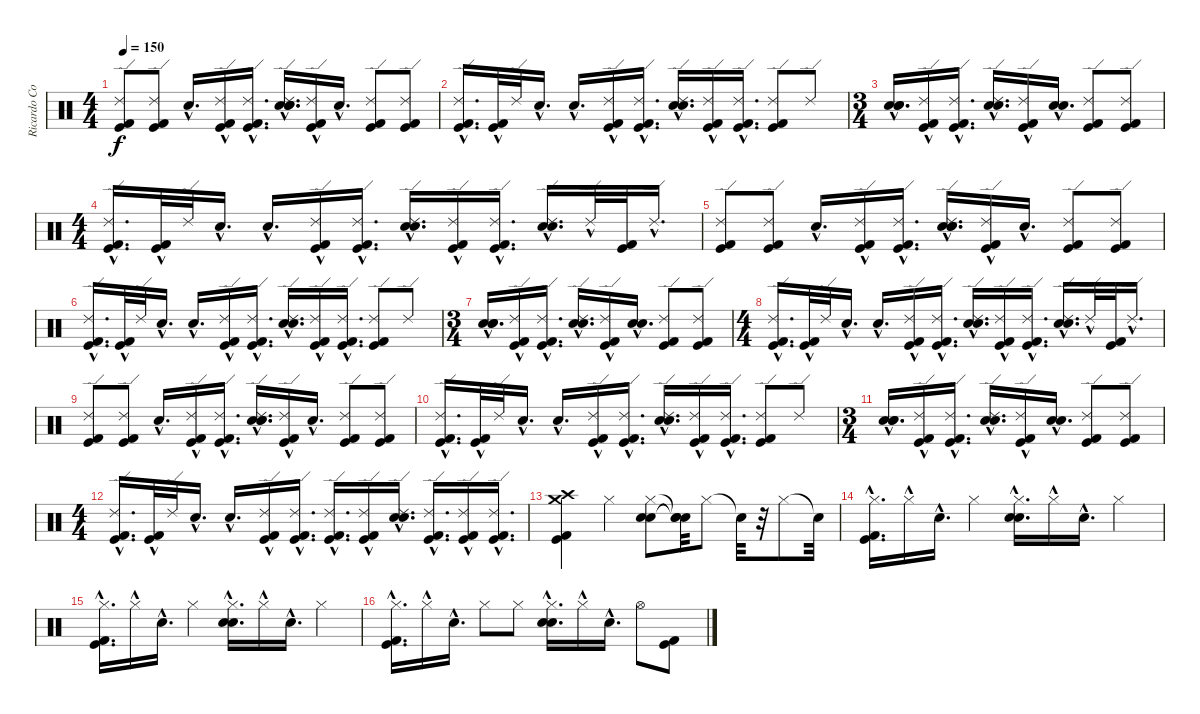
\track ("Ricardo Confessori" "Ricardo Co") {instrument percussion}
\staff {score}
\articulation defaults
\ts (4 4)
\tempo 150
\clef neutral
\ks c
("Ride (edge) 2" "Kick (hit) 2" "Kick (hit)").8{dy f} ("Ride (edge) 2" "Kick (hit) 2" "Kick (hit)").8 "Snare (hit)"{hac}.16{d} ("Ride (edge) 2"{hac} "Kick (hit) 2"{hac} "Kick (hit)"{hac}).16 ("Ride (edge) 2"{hac} "Kick (hit) 2"{hac} "Kick (hit)"{hac}).16{d} ("Electric Snare (hit)"{hac} "Snare (hit) 2"{hac} "Ride (edge) 2"{hac} "Snare (hit)"{hac}).16{d} ("Ride (edge) 2"{hac} "Kick (hit) 2"{hac} "Kick (hit)"{hac}).16 "Snare (hit)"{hac}.16{d} ("Ride (edge) 2" "Kick (hit) 2" "Kick (hit)").8 ("Ride (edge) 2" "Kick (hit) 2" "Kick (hit)").8 |
("Ride (edge) 2" "Kick (hit) 2"{hac} "Kick (hit)"{hac}).16{d} ("Kick (hit) 2"{hac} "Kick (hit)"{hac}).32 "Ride (edge) 2".32 "Snare (hit)"{hac}.16{d} "Snare (hit)"{hac}.16{d} ("Ride (edge) 2"{hac} "Kick (hit) 2"{hac} "Kick (hit)"{hac}).16 ("Ride (edge) 2"{hac} "Kick (hit) 2"{hac} "Kick (hit)"{hac}).16{d} ("Electric Snare (hit)"{hac} "Snare (hit) 2"{hac} "Ride (edge) 2"{hac}).16{d} ("Ride (edge) 2"{hac} "Kick (hit) 2"{hac} "Kick (hit)"{hac}).16 ("Ride (edge) 2"{hac} "Kick (hit) 2"{hac} "Kick (hit)"{hac}).16{d} ("Kick (hit) 2" "Ride (edge) 2" "Kick (hit)").8 "Ride (edge) 2".8 |
\ts (3 4)
("Electric Snare (hit)"{hac} "Snare (hit) 2"{hac} "Snare (hit)"{hac}).16{d} ("Kick (hit) 2"{hac} "Ride (edge) 2"{hac} "Kick (hit)"{hac}).16 ("Kick (hit) 2"{hac} "Ride (edge) 2"{hac} "Kick (hit)"{hac}).16{d} ("Electric Snare (hit)"{hac} "Snare (hit) 2"{hac} "Ride (edge) 2"{hac}).16{d} ("Ride (edge) 2"{hac} "Kick (hit) 2"{hac} "Kick (hit)"{hac}).16 ("Snare (hit)"{hac} "Snare (hit)"{hac}).16{d} ("Ride (edge) 2" "Kick (hit) 2" "Kick (hit)").8 ("Ride (edge) 2" "Kick (hit) 2" "Kick (hit)").8 |
\ts (4 4)
("Ride (edge) 2" "Kick (hit) 2"{hac} "Kick (hit)"{hac}).16{d} ("Kick (hit) 2"{hac} "Kick (hit)"{hac}).32 "Ride (edge) 2".32 "Snare (hit)"{hac}.16{d} "Snare (hit)"{hac}.16{d} ("Ride (edge) 2"{hac} "Kick (hit) 2"{hac} "Kick (hit)"{hac}).16 ("Ride (edge) 2"{hac} "Kick (hit) 2"{hac} "Kick (hit)"{hac}).16{d} ("Electric Snare (hit)"{hac} "Snare (hit) 2"{hac} "Ride (edge) 2"{hac}).16{d} ("Ride (edge) 2"{hac} "Kick (hit) 2"{hac} "Kick (hit)"{hac}).16 ("Ride (edge) 2"{hac} "Kick (hit) 2"{hac} "Kick (hit)"{hac}).16{d} ("Electric Snare (hit)"{hac} "Snare (hit) 2"{hac} "Ride (edge) 2"{hac}).16{d} "Ride (edge) 2"{hac}.32 ("Kick (hit) 2" "Kick (hit)").32 "Ride (edge) 2"{hac}.16{d} |
("Ride (edge) 2" "Kick (hit) 2" "Kick (hit)").8 ("Ride (edge) 2" "Kick (hit) 2" "Kick (hit)").8 "Snare (hit)"{hac}.16{d} ("Ride (edge) 2"{hac} "Kick (hit) 2"{hac} "Kick (hit)"{hac}).16 ("Ride (edge) 2"{hac} "Kick (hit) 2"{hac} "Kick (hit)"{hac}).16{d} ("Electric Snare (hit)"{hac} "Snare (hit) 2"{hac} "Ride (edge) 2"{hac} "Snare (hit)"{hac}).16{d} ("Ride (edge) 2"{hac} "Kick (hit) 2"{hac} "Kick (hit)"{hac}).16 "Snare (hit)"{hac}.16{d} ("Ride (edge) 2" "Kick (hit) 2" "Kick (hit)").8 ("Ride (edge) 2" "Kick (hit) 2" "Kick (hit)").8 |
("Ride (edge) 2" "Kick (hit) 2"{hac} "Kick (hit)"{hac}).16{d} ("Kick (hit) 2"{hac} "Kick (hit)"{hac}).32 "Ride (edge) 2".32 "Snare (hit)"{hac}.16{d} "Snare (hit)"{hac}.16{d} ("Ride (edge) 2"{hac} "Kick (hit) 2"{hac} "Kick (hit)"{hac}).16 ("Ride (edge) 2"{hac} "Kick (hit) 2"{hac} "Kick (hit)"{hac}).16{d} ("Electric Snare (hit)"{hac} "Snare (hit) 2"{hac} "Ride (edge) 2"{hac}).16{d} ("Ride (edge) 2"{hac} "Kick (hit) 2"{hac} "Kick (hit)"{hac}).16 ("Ride (edge) 2"{hac} "Kick (hit) 2"{hac} "Kick (hit)"{hac}).16{d} ("Kick (hit) 2" "Ride (edge) 2" "Kick (hit)").8 "Ride (edge) 2".8 |
\ts (3 4)
("Electric Snare (hit)"{hac} "Snare (hit) 2"{hac} "Snare (hit)"{hac}).16{d} ("Kick (hit) 2"{hac} "Ride (edge) 2"{hac} "Kick (hit)"{hac}).16 ("Kick (hit) 2"{hac} "Ride (edge) 2"{hac} "Kick (hit)"{hac}).16{d} ("Electric Snare (hit)"{hac} "Snare (hit) 2"{hac} "Ride (edge) 2"{hac}).16{d} ("Ride (edge) 2"{hac} "Kick (hit) 2"{hac} "Kick (hit)"{hac}).16 ("Snare (hit)"{hac} "Snare (hit)"{hac}).16{d} ("Ride (edge) 2" "Kick (hit) 2" "Kick (hit)").8 ("Ride (edge) 2" "Kick (hit) 2" "Kick (hit)").8 |
\ts (4 4)
("Ride (edge) 2" "Kick (hit) 2"{hac} "Kick (hit)"{hac}).16{d} ("Kick (hit) 2"{hac} "Kick (hit)"{hac}).32 "Ride (edge) 2".32 "Snare (hit)"{hac}.16{d} "Snare (hit)"{hac}.16{d} ("Ride (edge) 2"{hac} "Kick (hit) 2"{hac} "Kick (hit)"{hac}).16 ("Ride (edge) 2"{hac} "Kick (hit) 2"{hac} "Kick (hit)"{hac}).16{d} ("Electric Snare (hit)"{hac} "Snare (hit) 2"{hac} "Ride (edge) 2"{hac}).16{d} ("Ride (edge) 2"{hac} "Kick (hit) 2"{hac} "Kick (hit)"{hac}).16 ("Ride (edge) 2"{hac} "Kick (hit) 2"{hac} "Kick (hit)"{hac}).16{d} ("Electric Snare (hit)"{hac} "Snare (hit) 2"{hac} "Ride (edge) 2"{hac}).16{d} "Ride (edge) 2"{hac}.32 ("Kick (hit) 2" "Kick (hit)").32 "Ride (edge) 2"{hac}.16{d} |
("Ride (edge) 2" "Kick (hit) 2" "Kick (hit)").8 ("Ride (edge) 2" "Kick (hit) 2" "Kick (hit)").8 "Snare (hit)"{hac}.16{d} ("Ride (edge) 2"{hac} "Kick (hit) 2"{hac} "Kick (hit)"{hac}).16 ("Ride (edge) 2"{hac} "Kick (hit) 2"{hac} "Kick (hit)"{hac}).16{d} ("Electric Snare (hit)"{hac} "Snare (hit) 2"{hac} "Ride (edge) 2"{hac} "Snare (hit)"{hac}).16{d} ("Ride (edge) 2"{hac} "Kick (hit) 2"{hac} "Kick (hit)"{hac}).16 "Snare (hit)"{hac}.16{d} ("Ride (edge) 2" "Kick (hit) 2" "Kick (hit)").8 ("Ride (edge) 2" "Kick (hit) 2" "Kick (hit)").8 |
("Ride (edge) 2" "Kick (hit) 2"{hac} "Kick (hit)"{hac}).16{d} ("Kick (hit) 2"{hac} "Kick (hit)"{hac}).32 "Ride (edge) 2".32 "Snare (hit)"{hac}.16{d} "Snare (hit)"{hac}.16{d} ("Ride (edge) 2"{hac} "Kick (hit) 2"{hac} "Kick (hit)"{hac}).16 ("Ride (edge) 2"{hac} "Kick (hit) 2"{hac} "Kick (hit)"{hac}).16{d} ("Electric Snare (hit)"{hac} "Snare (hit) 2"{hac} "Ride (edge) 2"{hac}).16{d} ("Ride (edge) 2"{hac} "Kick (hit) 2"{hac} "Kick (hit)"{hac}).16 ("Ride (edge) 2"{hac} "Kick (hit) 2"{hac} "Kick (hit)"{hac}).16{d} ("Kick (hit) 2" "Ride (edge) 2" "Kick (hit)").8 "Ride (edge) 2".8 |
\ts (3 4)
("Electric Snare (hit)"{hac} "Snare (hit) 2"{hac} "Snare (hit)"{hac}).16{d} ("Kick (hit) 2"{hac} "Ride (edge) 2"{hac} "Kick (hit)"{hac}).16 ("Kick (hit) 2"{hac} "Ride (edge) 2"{hac} "Kick (hit)"{hac}).16{d} ("Electric Snare (hit)"{hac} "Snare (hit) 2"{hac} "Ride (edge) 2"{hac}).16{d} ("Ride (edge) 2"{hac} "Kick (hit) 2"{hac} "Kick (hit)"{hac}).16 ("Snare (hit)"{hac} "Snare (hit)"{hac}).16{d} ("Ride (edge) 2" "Kick (hit) 2" "Kick (hit)").8 ("Ride (edge) 2" "Kick (hit) 2" "Kick (hit)").8 |
\ts (4 4)
("Ride (edge) 2" "Kick (hit) 2"{hac} "Kick (hit)"{hac}).16{d} ("Kick (hit) 2"{hac} "Kick (hit)"{hac}).32 "Ride (edge) 2".32 "Snare (hit)"{hac}.16{d} "Snare (hit)"{hac}.16{d} ("Ride (edge) 2"{hac} "Kick (hit) 2"{hac} "Kick (hit)"{hac}).16 ("Ride (edge) 2"{hac} "Kick (hit) 2"{hac} "Kick (hit)"{hac}).16{d} ("Kick (hit) 2"{hac} "Kick (hit)"{hac} "Ride (edge) 2"{hac}).16{d} ("Ride (edge) 2"{hac} "Kick (hit) 2"{hac} "Kick (hit)"{hac}).16 ("Electric Snare (hit)"{hac} "Snare (hit) 2"{hac} "Ride (edge) 2"{hac}).16{d} ("Kick (hit) 2"{hac} "Kick (hit)"{hac} "Ride (edge) 2"{hac}).16{d} ("Kick (hit) 2"{hac} "Kick (hit)"{hac} "Ride (edge) 2"{hac}).16 ("Kick (hit) 2"{hac} "Kick (hit)"{hac} "Ride (edge) 2"{hac}).16{d} |
("Crash high (hit)" "Crash medium (hit)" "Kick (hit) 2" "Kick (hit)").4 "Hi-Hat (closed)".4 ("Electric Snare (hit)" "Snare (hit) 2" "Hi-Hat (closed)").8 ("Snare (hit)"{t} "Snare (hit)"{t} "Snare (hit)"{t}).32 "Hi-Hat (closed)".8 "Snare (hit)"{t}.32 r.32 "Hi-Hat (closed)".8 "Snare (hit)"{t}.32 |
("Hi-Hat (closed)"{hac} "Kick (hit) 2"{hac} "Kick (hit)"{hac}).16{d} "Hi-Hat (closed)"{hac}.16 "Snare (hit)"{hac}.16{d} "Hi-Hat (closed)".4 ("Electric Snare (hit)"{hac} "Snare (hit) 2"{hac} "Hi-Hat (closed)"{hac}).16{d} "Hi-Hat (closed)"{hac}.16 "Snare (hit)"{hac}.16{d} "Hi-Hat (closed)".4 |
("Kick (hit) 2"{hac} "Kick (hit)"{hac} "Hi-Hat (closed)"{hac}).16{d} "Hi-Hat (closed)"{hac}.16 "Snare (hit)"{hac}.16{d} "Hi-Hat (closed)".4 ("Electric Snare (hit)"{hac} "Snare (hit) 2"{hac} "Hi-Hat (closed)"{hac}).16{d} "Hi-Hat (closed)"{hac}.16 "Snare (hit)"{hac}.16{d} "Hi-Hat (closed)".4 |
("Kick (hit) 2"{hac} "Kick (hit)"{hac} "Hi-Hat (closed)"{hac}).16{d} "Hi-Hat (closed)"{hac}.16 "Snare (hit)"{hac}.16{d} "Hi-Hat (closed)".8 "Hi-Hat (closed)".8 ("Electric Snare (hit)"{hac} "Snare (hit) 2"{hac} "Hi-Hat (closed)"{hac}).16{d} "Hi-Hat (closed)"{hac}.16 "Snare (hit)"{hac}.16{d} "Hi-Hat (open)".8 ("Kick (hit) 2" "Kick (hit)").8
